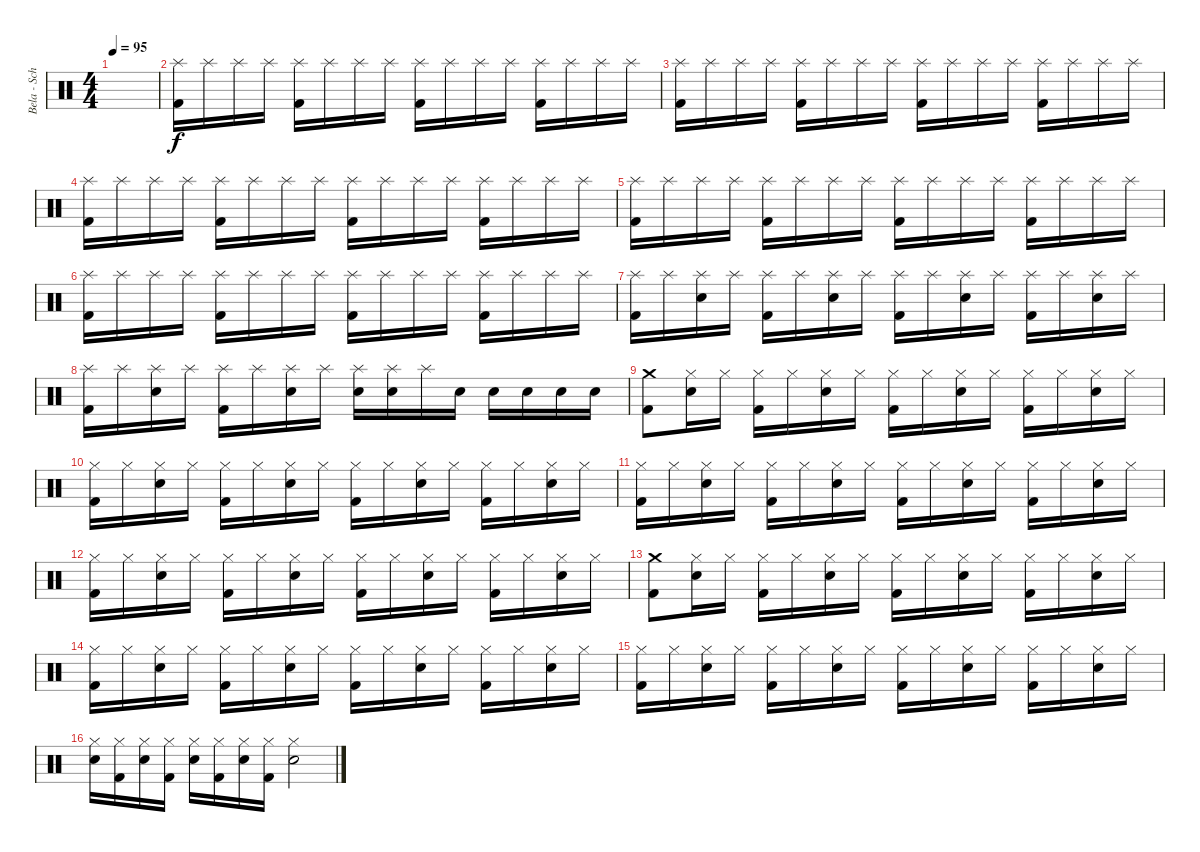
\track ("Bela - Schlagzeug" "Bela - Sch") {instrument percussion}
\staff {score}
\articulation defaults
\ts (4 4)
\tempo 95
\clef neutral
\ks c
|
("Splash (hit)" "Kick (hit) 2").16 "Splash (hit)".16 "Splash (hit)".16 "Splash (hit)".16 ("Splash (hit)" "Kick (hit) 2").16 "Splash (hit)".16 "Splash (hit)".16 "Splash (hit)".16 ("Splash (hit)" "Kick (hit) 2").16 "Splash (hit)".16 "Splash (hit)".16 "Splash (hit)".16 ("Splash (hit)" "Kick (hit) 2").16 "Splash (hit)".16 "Splash (hit)".16 "Splash (hit)".16 |
("Splash (hit)" "Kick (hit) 2").16 "Splash (hit)".16 "Splash (hit)".16 "Splash (hit)".16 ("Splash (hit)" "Kick (hit) 2").16 "Splash (hit)".16 "Splash (hit)".16 "Splash (hit)".16 ("Splash (hit)" "Kick (hit) 2").16 "Splash (hit)".16 "Splash (hit)".16 "Splash (hit)".16 ("Splash (hit)" "Kick (hit) 2").16 "Splash (hit)".16 "Splash (hit)".16 "Splash (hit)".16 |
("Splash (hit)" "Kick (hit) 2").16 "Splash (hit)".16 "Splash (hit)".16 "Splash (hit)".16 ("Splash (hit)" "Kick (hit) 2").16 "Splash (hit)".16 "Splash (hit)".16 "Splash (hit)".16 ("Splash (hit)" "Kick (hit) 2").16 "Splash (hit)".16 "Splash (hit)".16 "Splash (hit)".16 ("Splash (hit)" "Kick (hit) 2").16 "Splash (hit)".16 "Splash (hit)".16 "Splash (hit)".16 |
("Splash (hit)" "Kick (hit) 2").16 "Splash (hit)".16 "Splash (hit)".16 "Splash (hit)".16 ("Splash (hit)" "Kick (hit) 2").16 "Splash (hit)".16 "Splash (hit)".16 "Splash (hit)".16 ("Splash (hit)" "Kick (hit) 2").16 "Splash (hit)".16 "Splash (hit)".16 "Splash (hit)".16 ("Splash (hit)" "Kick (hit) 2").16 "Splash (hit)".16 "Splash (hit)".16 "Splash (hit)".16 |
("Splash (hit)" "Kick (hit) 2").16 "Splash (hit)".16 "Splash (hit)".16 "Splash (hit)".16 ("Splash (hit)" "Kick (hit) 2").16 "Splash (hit)".16 "Splash (hit)".16 "Splash (hit)".16 ("Splash (hit)" "Kick (hit) 2").16 "Splash (hit)".16 "Splash (hit)".16 "Splash (hit)".16 ("Splash (hit)" "Kick (hit) 2").16 "Splash (hit)".16 "Splash (hit)".16 "Splash (hit)".16 |
("Splash (hit)" "Kick (hit) 2").16 "Splash (hit)".16 ("Splash (hit)" "Snare (hit) 2").16 "Splash (hit)".16 ("Splash (hit)" "Kick (hit) 2").16 "Splash (hit)".16 ("Splash (hit)" "Snare (hit) 2").16 "Splash (hit)".16 ("Splash (hit)" "Kick (hit) 2").16 "Splash (hit)".16 ("Splash (hit)" "Snare (hit) 2").16 "Splash (hit)".16 ("Splash (hit)" "Kick (hit) 2").16 "Splash (hit)".16 ("Splash (hit)" "Snare (hit) 2").16 "Splash (hit)".16 |
("Splash (hit)" "Kick (hit) 2").16 "Splash (hit)".16 ("Splash (hit)" "Snare (hit) 2").16 "Splash (hit)".16 ("Splash (hit)" "Kick (hit) 2").16 "Splash (hit)".16 ("Splash (hit)" "Snare (hit) 2").16 "Splash (hit)".16 ("Splash (hit)" "Snare (hit) 2").16 ("Splash (hit)" "Snare (hit) 2").16 "Splash (hit)".16 "Snare (hit) 2".16 "Snare (hit) 2".16 "Snare (hit) 2".16 "Snare (hit) 2".16 "Snare (hit) 2".16 |
("Crash medium (hit)" "Kick (hit) 2").8 ("Hi-Hat (closed)" "Snare (hit) 2").16 "Hi-Hat (closed)".16 ("Hi-Hat (closed)" "Kick (hit) 2").16 "Hi-Hat (closed)".16 ("Hi-Hat (closed)" "Snare (hit) 2").16 "Hi-Hat (closed)".16 ("Hi-Hat (closed)" "Kick (hit) 2").16 "Hi-Hat (closed)".16 ("Hi-Hat (closed)" "Snare (hit) 2").16 "Hi-Hat (closed)".16 ("Hi-Hat (closed)" "Kick (hit) 2").16 "Hi-Hat (closed)".16 ("Hi-Hat (closed)" "Snare (hit) 2").16 "Hi-Hat (closed)".16 |
("Hi-Hat (closed)" "Kick (hit) 2").16 "Hi-Hat (closed)".16 ("Hi-Hat (closed)" "Snare (hit) 2").16 "Hi-Hat (closed)".16 ("Hi-Hat (closed)" "Kick (hit) 2").16 "Hi-Hat (closed)".16 ("Hi-Hat (closed)" "Snare (hit) 2").16 "Hi-Hat (closed)".16 ("Hi-Hat (closed)" "Kick (hit) 2").16 "Hi-Hat (closed)".16 ("Hi-Hat (closed)" "Snare (hit) 2").16 "Hi-Hat (closed)".16 ("Hi-Hat (closed)" "Kick (hit) 2").16 "Hi-Hat (closed)".16 ("Hi-Hat (closed)" "Snare (hit) 2").16 "Hi-Hat (closed)".16 |
("Hi-Hat (closed)" "Kick (hit) 2").16 "Hi-Hat (closed)".16 ("Hi-Hat (closed)" "Snare (hit) 2").16 "Hi-Hat (closed)".16 ("Hi-Hat (closed)" "Kick (hit) 2").16 "Hi-Hat (closed)".16 ("Hi-Hat (closed)" "Snare (hit) 2").16 "Hi-Hat (closed)".16 ("Hi-Hat (closed)" "Kick (hit) 2").16 "Hi-Hat (closed)".16 ("Hi-Hat (closed)" "Snare (hit) 2").16 "Hi-Hat (closed)".16 ("Hi-Hat (closed)" "Kick (hit) 2").16 "Hi-Hat (closed)".16 ("Hi-Hat (closed)" "Snare (hit) 2").16 "Hi-Hat (closed)".16 |
("Hi-Hat (closed)" "Kick (hit) 2").16 "Hi-Hat (closed)".16 ("Hi-Hat (closed)" "Snare (hit) 2").16 "Hi-Hat (closed)".16 ("Hi-Hat (closed)" "Kick (hit) 2").16 "Hi-Hat (closed)".16 ("Hi-Hat (closed)" "Snare (hit) 2").16 "Hi-Hat (closed)".16 ("Hi-Hat (closed)" "Kick (hit) 2").16 "Hi-Hat (closed)".16 ("Hi-Hat (closed)" "Snare (hit) 2").16 "Hi-Hat (closed)".16 ("Hi-Hat (closed)" "Kick (hit) 2").16 "Hi-Hat (closed)".16 ("Hi-Hat (closed)" "Snare (hit) 2").16 "Hi-Hat (closed)".16 |
("Crash medium (hit)" "Kick (hit) 2").8 ("Hi-Hat (closed)" "Snare (hit) 2").16 "Hi-Hat (closed)".16 ("Hi-Hat (closed)" "Kick (hit) 2").16 "Hi-Hat (closed)".16 ("Hi-Hat (closed)" "Snare (hit) 2").16 "Hi-Hat (closed)".16 ("Hi-Hat (closed)" "Kick (hit) 2").16 "Hi-Hat (closed)".16 ("Hi-Hat (closed)" "Snare (hit) 2").16 "Hi-Hat (closed)".16 ("Hi-Hat (closed)" "Kick (hit) 2").16 "Hi-Hat (closed)".16 ("Hi-Hat (closed)" "Snare (hit) 2").16 "Hi-Hat (closed)".16 |
("Hi-Hat (closed)" "Kick (hit) 2").16 "Hi-Hat (closed)".16 ("Hi-Hat (closed)" "Snare (hit) 2").16 "Hi-Hat (closed)".16 ("Hi-Hat (closed)" "Kick (hit) 2").16 "Hi-Hat (closed)".16 ("Hi-Hat (closed)" "Snare (hit) 2").16 "Hi-Hat (closed)".16 ("Hi-Hat (closed)" "Kick (hit) 2").16 "Hi-Hat (closed)".16 ("Hi-Hat (closed)" "Snare (hit) 2").16 "Hi-Hat (closed)".16 ("Hi-Hat (closed)" "Kick (hit) 2").16 "Hi-Hat (closed)".16 ("Hi-Hat (closed)" "Snare (hit) 2").16 "Hi-Hat (closed)".16 |
("Hi-Hat (closed)" "Kick (hit) 2").16 "Hi-Hat (closed)".16 ("Hi-Hat (closed)" "Snare (hit) 2").16 "Hi-Hat (closed)".16 ("Hi-Hat (closed)" "Kick (hit) 2").16 "Hi-Hat (closed)".16 ("Hi-Hat (closed)" "Snare (hit) 2").16 "Hi-Hat (closed)".16 ("Hi-Hat (closed)" "Kick (hit) 2").16 "Hi-Hat (closed)".16 ("Hi-Hat (closed)" "Snare (hit) 2").16 "Hi-Hat (closed)".16 ("Hi-Hat (closed)" "Kick (hit) 2").16 "Hi-Hat (closed)".16 ("Hi-Hat (closed)" "Snare (hit) 2").16 "Hi-Hat (closed)".16 |
("Hi-Hat (closed)" "Snare (hit) 2").16 ("Hi-Hat (closed)" "Kick (hit) 2").16 ("Hi-Hat (closed)" "Snare (hit) 2").16 ("Hi-Hat (closed)" "Kick (hit) 2").16 ("Hi-Hat (closed)" "Snare (hit) 2").16 ("Hi-Hat (closed)" "Kick (hit) 2").16 ("Hi-Hat (closed)" "Snare (hit) 2").16 ("Hi-Hat (closed)" "Kick (hit) 2").16 ("Hi-Hat (closed)" "Snare (hit) 2").2
